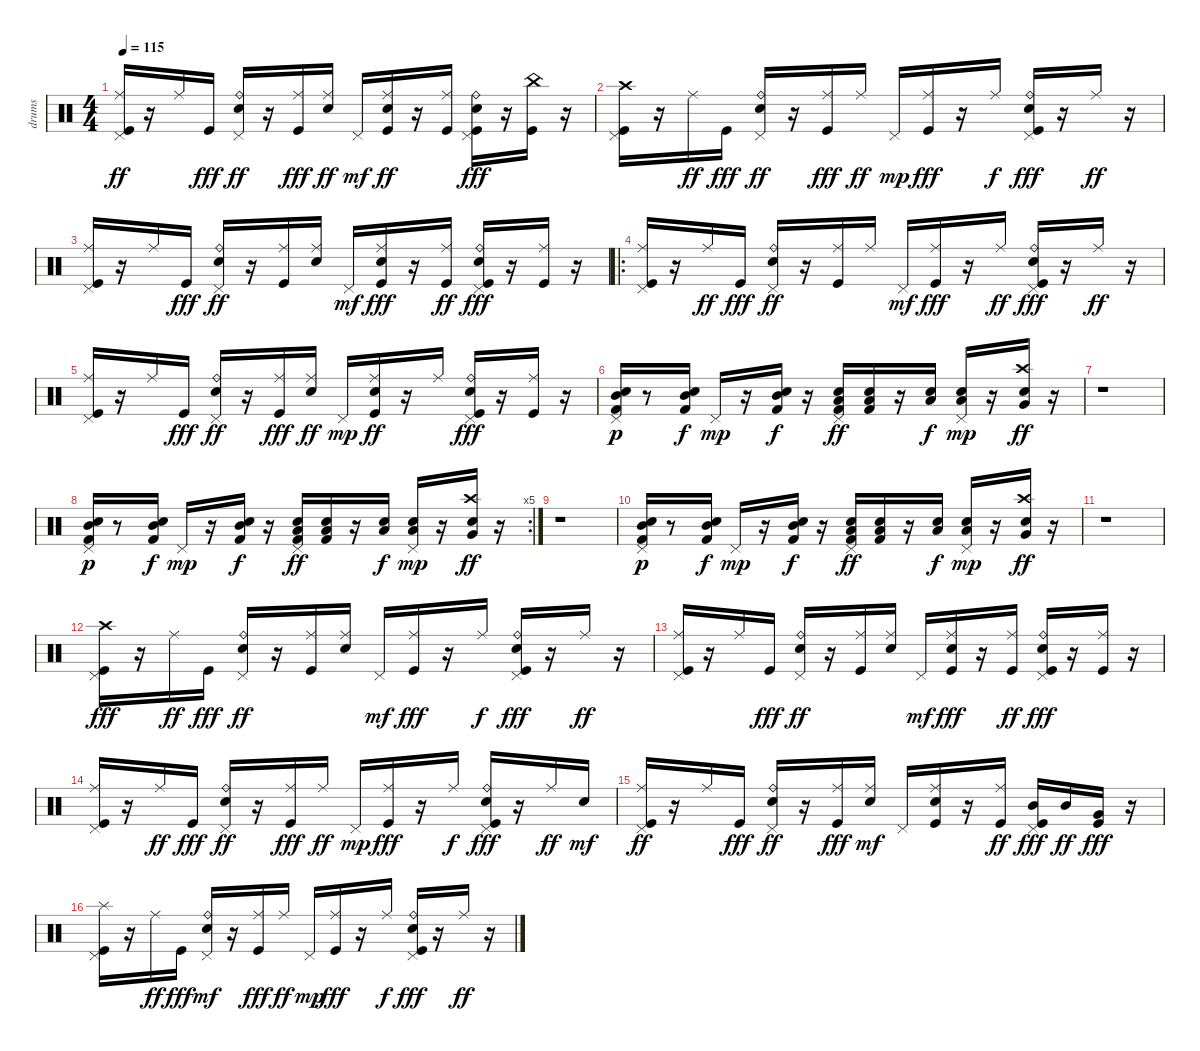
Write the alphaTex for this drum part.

\track ("drums" "drums") {instrument percussion}
\staff {score}
\articulation defaults
\ts (4 4)
\tempo 115
\clef neutral
\ks c
("Pedal Hi-Hat (hit)" "Kick (hit)" "Ride (middle)").16{dy ff} r.16 "Ride (middle)".16 "Kick (hit)".16{dy fff} ("Pedal Hi-Hat (hit)" "Ride (bell)" "Snare (hit) 2").16{dy ff} r.16 ("Kick (hit)" "Ride (middle)").16{dy fff} ("Ride (middle)" "Snare (hit) 2").16{dy ff} "Pedal Hi-Hat (hit)".16{dy mf} ("Ride (middle)" "Kick (hit)" "Snare (hit) 2").16{dy ff} r.16 ("Kick (hit)" "Ride (middle)").16 ("Pedal Hi-Hat (hit)" "Ride (bell)" "Snare (hit) 2" "Kick (hit)").16{dy fff} r.16 ("China (hit)" "Kick (hit)").16 r.16 |
("Crash high (hit)" "Pedal Hi-Hat (hit)" "Kick (hit)").16 r.16 "Ride (middle)".16{dy ff} "Kick (hit)".16{dy fff} ("Pedal Hi-Hat (hit)" "Snare (hit) 2" "Ride (bell)").16{dy ff} r.16 ("Ride (middle)" "Kick (hit)").16{dy fff} "Ride (middle)".16{dy ff} "Pedal Hi-Hat (hit)".16{dy mp} ("Ride (middle)" "Kick (hit)").16{dy fff} r.16 "Ride (middle)".16{dy f} ("Pedal Hi-Hat (hit)" "Ride (bell)" "Snare (hit) 2" "Kick (hit)").16{dy fff} r.16 "Ride (middle)".16{dy ff} r.16 |
("Pedal Hi-Hat (hit)" "Kick (hit)" "Ride (middle)").16 r.16 "Ride (middle)".16 "Kick (hit)".16{dy fff} ("Pedal Hi-Hat (hit)" "Snare (hit) 2" "Ride (bell)").16{dy ff} r.16 ("Kick (hit)" "Ride (middle)").16 ("Ride (middle)" "Snare (hit) 2").16 "Pedal Hi-Hat (hit)".16{dy mf} ("Ride (middle)" "Snare (hit) 2" "Kick (hit)").16{dy fff} r.16 ("Kick (hit)" "Ride (middle)").16{dy ff} ("Pedal Hi-Hat (hit)" "Snare (hit) 2" "Ride (bell)" "Kick (hit)").16{dy fff} r.16 ("Ride (middle)" "Kick (hit)").16 r.16 |
\ro
("Pedal Hi-Hat (hit)" "Ride (middle)" "Kick (hit)").16 r.16 "Ride (middle)".16{dy ff} "Kick (hit)".16{dy fff} ("Pedal Hi-Hat (hit)" "Ride (bell)" "Snare (hit) 2").16{dy ff} r.16 ("Kick (hit)" "Ride (middle)").16 "Ride (middle)".16 "Pedal Hi-Hat (hit)".16{dy mf} ("Ride (middle)" "Kick (hit)").16{dy fff} r.16 "Ride (middle)".16{dy ff} ("Pedal Hi-Hat (hit)" "Kick (hit)" "Ride (bell)" "Snare (hit) 2").16{dy fff} r.16 "Ride (middle)".16{dy ff} r.16 |
("Pedal Hi-Hat (hit)" "Kick (hit)" "Ride (middle)").16 r.16 "Ride (middle)".16 "Kick (hit)".16{dy fff} ("Pedal Hi-Hat (hit)" "Snare (hit) 2" "Ride (bell)").16{dy ff} r.16 ("Kick (hit)" "Ride (middle)").16{dy fff} ("Ride (middle)" "Snare (hit) 2").16{dy ff} "Pedal Hi-Hat (hit)".16{dy mp} ("Kick (hit)" "Ride (middle)" "Snare (hit) 2").16{dy ff} r.16 "Ride (middle)".16 ("Pedal Hi-Hat (hit)" "Kick (hit)" "Snare (hit) 2" "Ride (bell)").16{dy fff} r.16 ("Ride (middle)" "Kick (hit)").16 r.16 |
("Kick (hit) 2" "Mid Tom (hit)" "Snare (hit) 2" "Pedal Hi-Hat (hit)").16{dy p} r.8 ("Kick (hit) 2" "Mid Tom (hit)" "Snare (hit) 2").16{dy f} "Pedal Hi-Hat (hit)".16{dy mp} r.16 ("Kick (hit) 2" "Snare (hit) 2" "Mid Tom (hit)").16{dy f} r.16 ("Kick (hit) 2" "Pedal Hi-Hat (hit)" "Snare (hit) 2" "Low Tom (hit)").16{dy ff} ("Kick (hit) 2" "Low Tom (hit)" "Snare (hit) 2").16 r.16 ("Snare (hit) 2" "Low Tom (hit)").16{dy f} ("Pedal Hi-Hat (hit)" "Snare (hit) 2" "Low Tom (hit)").16{dy mp} r.16 ("Crash high (hit)" "Very Low Tom (hit)" "Snare (hit) 2").16{dy ff} r.16 |
r.1 |
\rc 5
("Kick (hit) 2" "Mid Tom (hit)" "Snare (hit) 2" "Pedal Hi-Hat (hit)").16{dy p} r.8 ("Kick (hit) 2" "Mid Tom (hit)" "Snare (hit) 2").16{dy f} "Pedal Hi-Hat (hit)".16{dy mp} r.16 ("Kick (hit) 2" "Snare (hit) 2" "Mid Tom (hit)").16{dy f} r.16 ("Kick (hit) 2" "Pedal Hi-Hat (hit)" "Snare (hit) 2" "Low Tom (hit)").16{dy ff} ("Kick (hit) 2" "Low Tom (hit)" "Snare (hit) 2").16 r.16 ("Snare (hit) 2" "Low Tom (hit)").16{dy f} ("Pedal Hi-Hat (hit)" "Snare (hit) 2" "Low Tom (hit)").16{dy mp} r.16 ("Crash high (hit)" "Very Low Tom (hit)" "Snare (hit) 2").16{dy ff} r.16 |
r.1 |
("Kick (hit) 2" "Mid Tom (hit)" "Snare (hit) 2" "Pedal Hi-Hat (hit)").16{dy p} r.8 ("Kick (hit) 2" "Mid Tom (hit)" "Snare (hit) 2").16{dy f} "Pedal Hi-Hat (hit)".16{dy mp} r.16 ("Kick (hit) 2" "Snare (hit) 2" "Mid Tom (hit)").16{dy f} r.16 ("Kick (hit) 2" "Pedal Hi-Hat (hit)" "Snare (hit) 2" "Low Tom (hit)").16{dy ff} ("Kick (hit) 2" "Low Tom (hit)" "Snare (hit) 2").16 r.16 ("Snare (hit) 2" "Low Tom (hit)").16{dy f} ("Pedal Hi-Hat (hit)" "Snare (hit) 2" "Low Tom (hit)").16{dy mp} r.16 ("Crash high (hit)" "Very Low Tom (hit)" "Snare (hit) 2").16{dy ff} r.16 |
r.1 |
("Crash high (hit)" "Pedal Hi-Hat (hit)" "Kick (hit)").16{dy fff} r.16 "Ride (middle)".16{dy ff} "Kick (hit)".16{dy fff} ("Pedal Hi-Hat (hit)" "Snare (hit) 2" "Ride (bell)").16{dy ff} r.16 ("Kick (hit)" "Ride (middle)").16 ("Snare (hit) 2" "Ride (middle)").16 "Pedal Hi-Hat (hit)".16{dy mf} ("Ride (middle)" "Kick (hit)").16{dy fff} r.16 "Ride (middle)".16{dy f} ("Pedal Hi-Hat (hit)" "Snare (hit) 2" "Ride (bell)" "Kick (hit)").16{dy fff} r.16 "Ride (middle)".16{dy ff} r.16 |
("Pedal Hi-Hat (hit)" "Kick (hit)" "Ride (middle)").16 r.16 "Ride (middle)".16 "Kick (hit)".16{dy fff} ("Pedal Hi-Hat (hit)" "Snare (hit) 2" "Ride (bell)").16{dy ff} r.16 ("Kick (hit)" "Ride (middle)").16 ("Ride (middle)" "Snare (hit) 2").16 "Pedal Hi-Hat (hit)".16{dy mf} ("Ride (middle)" "Snare (hit) 2" "Kick (hit)").16{dy fff} r.16 ("Ride (middle)" "Kick (hit)").16{dy ff} ("Pedal Hi-Hat (hit)" "Ride (bell)" "Snare (hit) 2" "Kick (hit)").16{dy fff} r.16 ("Ride (middle)" "Kick (hit)").16 r.16 |
("Pedal Hi-Hat (hit)" "Ride (middle)" "Kick (hit)").16 r.16 "Ride (middle)".16{dy ff} "Kick (hit)".16{dy fff} ("Pedal Hi-Hat (hit)" "Snare (hit) 2" "Ride (bell)").16{dy ff} r.16 ("Ride (middle)" "Kick (hit)").16{dy fff} "Ride (middle)".16{dy ff} "Pedal Hi-Hat (hit)".16{dy mp} ("Ride (middle)" "Kick (hit)").16{dy fff} r.16 "Ride (middle)".16{dy f} ("Pedal Hi-Hat (hit)" "Ride (bell)" "Snare (hit) 2" "Kick (hit)").16{dy fff} r.16 "Ride (middle)".16{dy ff} "Snare (hit) 2".16{dy mf} |
("Pedal Hi-Hat (hit)" "Kick (hit)" "Ride (middle)").16{dy ff} r.16 "Ride (middle)".16 "Kick (hit)".16{dy fff} ("Pedal Hi-Hat (hit)" "Ride (bell)" "Snare (hit) 2").16{dy ff} r.16 ("Kick (hit)" "Ride (middle)").16{dy fff} ("Ride (middle)" "Snare (hit) 2").16{dy mf} "Pedal Hi-Hat (hit)".16 ("Ride (middle)" "Kick (hit)" "Snare (hit) 2").16 r.16 ("Kick (hit)" "Ride (middle)").16{dy ff} ("Mid Tom (hit)" "Pedal Hi-Hat (hit)" "Kick (hit)").16{dy fff} "Mid Tom (hit)".16{dy ff} ("Very Low Tom (hit)" "Kick (hit)").16{dy fff} r.16 |
("Splash (hit)" "Pedal Hi-Hat (hit)" "Kick (hit)").16 r.16 "Ride (middle)".16{dy ff} "Kick (hit)".16{dy fff} ("Pedal Hi-Hat (hit)" "Snare (hit) 2" "Ride (bell)").16{dy mf} r.16 ("Ride (middle)" "Kick (hit)").16{dy fff} "Ride (middle)".16{dy ff} "Pedal Hi-Hat (hit)".16{dy mp} ("Ride (middle)" "Kick (hit)").16{dy fff} r.16 "Ride (middle)".16{dy f} ("Pedal Hi-Hat (hit)" "Ride (bell)" "Snare (hit) 2" "Kick (hit)").16{dy fff} r.16 "Ride (middle)".16{dy ff} r.16
